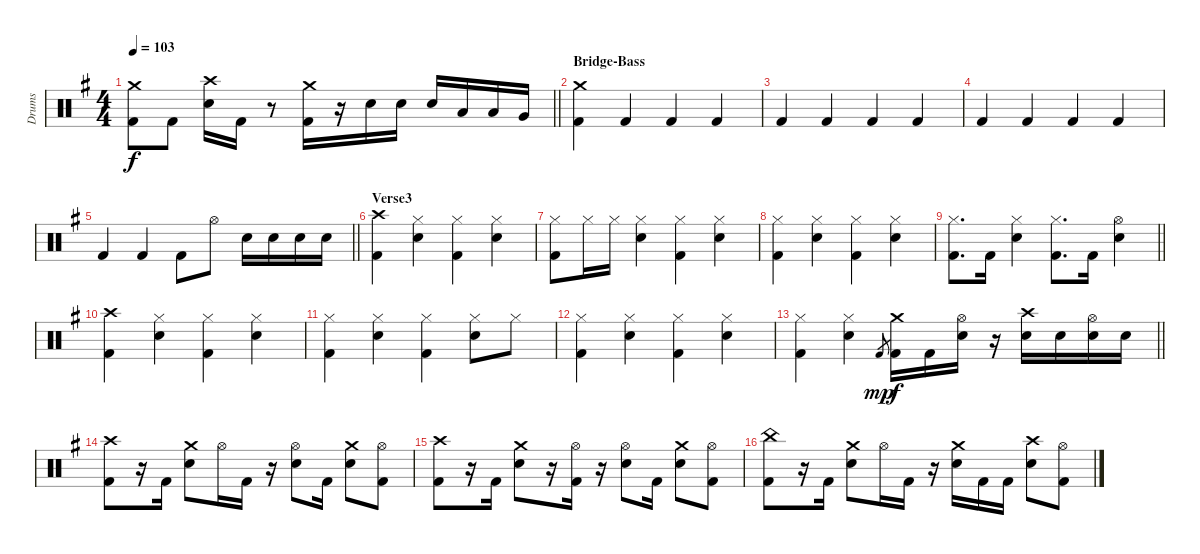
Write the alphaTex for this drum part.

\track ("Drums" "Drums") {instrument percussion}
\staff {score}
\articulation defaults
\ts (4 4)
\tempo 103
\clef neutral
\barLineRight lightlight
\ks eminor
("Crash medium (hit)" "Kick (hit) 2").8{dy f} "Kick (hit) 2".8 ("Crash high (hit)" "Electric Snare (hit)").16 "Kick (hit) 2".16 r.8 ("Crash medium (hit)" "Kick (hit) 2").16 r.16 "Electric Snare (hit)".16 "Electric Snare (hit)".16 "Electric Snare (hit)".16 "Low Tom (hit)".16 "Low Tom (hit)".16 "Very Low Tom (hit)".16 |
\section ("" "Bridge-Bass")
("Crash medium (hit)" "Kick (hit) 2").4 "Kick (hit) 2".4 "Kick (hit) 2".4 "Kick (hit) 2".4 |
"Kick (hit) 2".4 "Kick (hit) 2".4 "Kick (hit) 2".4 "Kick (hit) 2".4 |
"Kick (hit) 2".4 "Kick (hit) 2".4 "Kick (hit) 2".4 "Kick (hit) 2".4 |
\barLineRight lightlight "Kick (hit) 2".4 "Kick (hit) 2".4 "Kick (hit) 2".8 "Hi-Hat (open)".8 "Electric Snare (hit)".16 "Electric Snare (hit)".16 "Electric Snare (hit)".16 "Electric Snare (hit)".16
|
\section ("" "Verse3")
("Crash high (hit)" "Kick (hit) 2").4 ("Hi-Hat (closed)" "Electric Snare (hit)").4 ("Hi-Hat (closed)" "Kick (hit) 2").4 ("Hi-Hat (closed)" "Electric Snare (hit)").4 |
("Hi-Hat (closed)" "Kick (hit) 2").8 "Hi-Hat (closed)".16 "Hi-Hat (closed)".16 ("Hi-Hat (closed)" "Electric Snare (hit)").4 ("Hi-Hat (closed)" "Kick (hit) 2").4 ("Hi-Hat (closed)" "Electric Snare (hit)").4 |
("Hi-Hat (closed)" "Kick (hit) 2").4 ("Hi-Hat (closed)" "Electric Snare (hit)").4 ("Hi-Hat (closed)" "Kick (hit) 2").4 ("Hi-Hat (closed)" "Electric Snare (hit)").4 |
\barLineRight lightlight
("Hi-Hat (closed)" "Kick (hit) 2").8{d} "Kick (hit) 2".16 ("Hi-Hat (closed)" "Electric Snare (hit)").4 ("Hi-Hat (closed)" "Kick (hit) 2").8{d} "Kick (hit) 2".16 ("Hi-Hat (open)" "Electric Snare (hit)").4 |
("Crash high (hit)" "Kick (hit) 2").4 ("Hi-Hat (closed)" "Electric Snare (hit)").4 ("Hi-Hat (closed)" "Kick (hit) 2").4 ("Hi-Hat (closed)" "Electric Snare (hit)").4 |
("Hi-Hat (closed)" "Kick (hit) 2").4 ("Hi-Hat (closed)" "Electric Snare (hit)").4 ("Hi-Hat (closed)" "Kick (hit) 2").4 ("Hi-Hat (closed)" "Electric Snare (hit)").8 "Hi-Hat (closed)".8 |
("Hi-Hat (closed)" "Kick (hit) 2").4 ("Hi-Hat (closed)" "Electric Snare (hit)").4 ("Hi-Hat (closed)" "Kick (hit) 2").4 ("Hi-Hat (closed)" "Electric Snare (hit)").4 |
\barLineRight lightlight
("Hi-Hat (closed)" "Kick (hit) 2").4 ("Hi-Hat (closed)" "Electric Snare (hit)").4 "Kick (hit) 2".8{gr dy mp} ("Crash medium (hit)" "Kick (hit) 2").16{dy f} "Kick (hit) 2".16 ("Hi-Hat (open)" "Electric Snare (hit)").16 r.16 ("Crash high (hit)" "Electric Snare (hit)").16 "Electric Snare (hit)".16 ("Hi-Hat (open)" "Electric Snare (hit)").16 "Electric Snare (hit)".16 |
("Crash high (hit)" "Kick (hit) 2").8 r.16 "Kick (hit) 2".16 ("Crash medium (hit)" "Electric Snare (hit)").8 "Hi-Hat (open)".16 "Kick (hit) 2".16 r.16 ("Hi-Hat (open)" "Electric Snare (hit)").8 "Kick (hit) 2".16 ("Crash medium (hit)" "Electric Snare (hit)").8 ("Hi-Hat (open)" "Kick (hit) 2").8 |
("Crash high (hit)" "Kick (hit) 2").8 r.16 "Kick (hit) 2".16 ("Crash medium (hit)" "Electric Snare (hit)").8 r.16 ("Hi-Hat (open)" "Kick (hit) 2").16 r.16 ("Hi-Hat (open)" "Electric Snare (hit)").8 "Kick (hit) 2".16 ("Crash medium (hit)" "Electric Snare (hit)").8 ("Hi-Hat (open)" "Kick (hit) 2").8 |
("China (hit)" "Kick (hit) 2").8 r.16 "Kick (hit) 2".16 ("Crash medium (hit)" "Electric Snare (hit)").8 "Hi-Hat (open)".16 "Kick (hit) 2".16 r.16 ("Crash medium (hit)" "Electric Snare (hit)").16 "Kick (hit) 2".16 "Kick (hit) 2".16 ("Crash high (hit)" "Electric Snare (hit)").8 ("Hi-Hat (open)" "Kick (hit) 2").8
